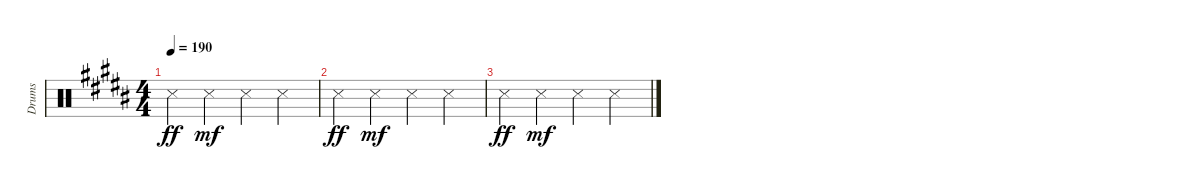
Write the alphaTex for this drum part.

\bracketExtendMode groupsimilarinstruments
\otherSystemsTrackNameOrientation horizontal
\track ("Drumkit" "Drums") {mute instrument percussion}
\staff {score}
\articulation defaults
\ts (4 4)
\tempo 190
\clef neutral
\ks b "Snare (side stick) 3"{acc forcenatural}.4{dy ff} "Snare (side stick) 3"{acc forcenatural}.4{dy mf} "Snare (side stick) 3"{acc forcenatural}.4 "Snare (side stick) 3"{acc forcenatural}.4
|
"Snare (side stick) 3"{acc forcenatural}.4{dy ff} "Snare (side stick) 3"{acc forcenatural}.4{dy mf} "Snare (side stick) 3"{acc forcenatural}.4 "Snare (side stick) 3"{acc forcenatural}.4 |
"Snare (side stick) 3"{acc forcenatural}.4{dy ff} "Snare (side stick) 3"{acc forcenatural}.4{dy mf} "Snare (side stick) 3"{acc forcenatural}.4 "Snare (side stick) 3"{acc forcenatural}.4
